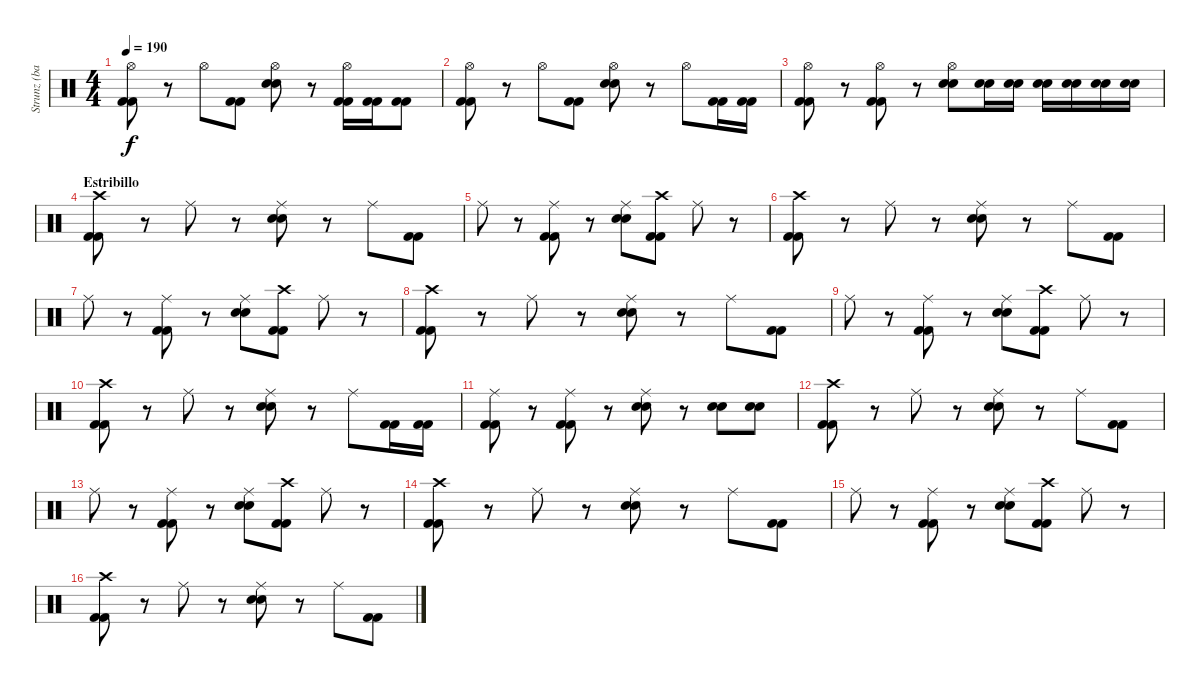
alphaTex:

\track ("Strunz (bateria)" "Strunz (ba") {instrument percussion}
\staff {score}
\articulation defaults
\ts (4 4)
\tempo 190
\clef neutral
\ks c
("Hi-Hat (open)" "Kick (hit) 2" "Kick (hit) 2").8{dy f} r.8 "Hi-Hat (open)".8 ("Kick (hit) 2" "Kick (hit) 2").8 ("Hi-Hat (open)" "Snare (hit) 2" "Snare (hit) 2").8 r.8 ("Hi-Hat (open)" "Kick (hit) 2" "Kick (hit) 2").16 ("Kick (hit) 2" "Kick (hit) 2").16 ("Kick (hit) 2" "Kick (hit) 2").8 |
("Hi-Hat (open)" "Kick (hit) 2" "Kick (hit) 2").8 r.8 "Hi-Hat (open)".8 ("Kick (hit) 2" "Kick (hit) 2").8 ("Hi-Hat (open)" "Snare (hit) 2" "Snare (hit) 2").8 r.8 "Hi-Hat (open)".8 ("Kick (hit) 2" "Kick (hit) 2").16 ("Kick (hit) 2" "Kick (hit) 2").16 |
("Hi-Hat (open)" "Kick (hit) 2" "Kick (hit) 2").8 r.8 ("Hi-Hat (open)" "Kick (hit) 2" "Kick (hit) 2").8 r.8 ("Hi-Hat (open)" "Snare (hit) 2" "Snare (hit) 2").8 ("Snare (hit) 2" "Snare (hit) 2").16 ("Snare (hit) 2" "Snare (hit) 2").16 ("Snare (hit) 2" "Snare (hit) 2").16 ("Snare (hit) 2" "Snare (hit) 2").16 ("Snare (hit) 2" "Snare (hit) 2").16 ("Snare (hit) 2" "Snare (hit) 2").16 |
\section ("" "Estribillo")
("Crash high (hit)" "Kick (hit) 2" "Kick (hit) 2").8 r.8 "Ride (middle)".8 r.8 ("Ride (middle)" "Snare (hit) 2" "Snare (hit) 2").8 r.8 "Ride (middle)".8 ("Kick (hit) 2" "Kick (hit) 2").8 |
"Ride (middle)".8 r.8 ("Ride (middle)" "Kick (hit) 2" "Kick (hit) 2").8 r.8 ("Ride (middle)" "Snare (hit) 2" "Snare (hit) 2").8 ("Crash high (hit)" "Kick (hit) 2" "Kick (hit) 2").8 "Ride (middle)".8 r.8 |
("Crash high (hit)" "Kick (hit) 2" "Kick (hit) 2").8 r.8 "Ride (middle)".8 r.8 ("Ride (middle)" "Snare (hit) 2" "Snare (hit) 2").8 r.8 "Ride (middle)".8 ("Kick (hit) 2" "Kick (hit) 2").8 |
"Ride (middle)".8 r.8 ("Ride (middle)" "Kick (hit) 2" "Kick (hit) 2").8 r.8 ("Ride (middle)" "Snare (hit) 2" "Snare (hit) 2").8 ("Crash high (hit)" "Kick (hit) 2" "Kick (hit) 2").8 "Ride (middle)".8 r.8 |
("Crash high (hit)" "Kick (hit) 2" "Kick (hit) 2").8 r.8 "Ride (middle)".8 r.8 ("Ride (middle)" "Snare (hit) 2" "Snare (hit) 2").8 r.8 "Ride (middle)".8 ("Kick (hit) 2" "Kick (hit) 2").8 |
"Ride (middle)".8 r.8 ("Ride (middle)" "Kick (hit) 2" "Kick (hit) 2").8 r.8 ("Ride (middle)" "Snare (hit) 2" "Snare (hit) 2").8 ("Crash high (hit)" "Kick (hit) 2" "Kick (hit) 2").8 "Ride (middle)".8 r.8 |
("Crash high (hit)" "Kick (hit) 2" "Kick (hit) 2").8 r.8 "Ride (middle)".8 r.8 ("Ride (middle)" "Snare (hit) 2" "Snare (hit) 2").8 r.8 "Ride (middle)".8 ("Kick (hit) 2" "Kick (hit) 2").16 ("Kick (hit) 2" "Kick (hit) 2").16 |
("Ride (middle)" "Kick (hit) 2" "Kick (hit) 2").8 r.8 ("Ride (middle)" "Kick (hit) 2" "Kick (hit) 2").8 r.8 ("Ride (middle)" "Snare (hit) 2" "Snare (hit) 2").8 r.8 ("Snare (hit) 2" "Snare (hit) 2").8 ("Snare (hit) 2" "Snare (hit) 2").8 |
("Crash high (hit)" "Kick (hit) 2" "Kick (hit) 2").8 r.8 "Ride (middle)".8 r.8 ("Ride (middle)" "Snare (hit) 2" "Snare (hit) 2").8 r.8 "Ride (middle)".8 ("Kick (hit) 2" "Kick (hit) 2").8 |
"Ride (middle)".8 r.8 ("Ride (middle)" "Kick (hit) 2" "Kick (hit) 2").8 r.8 ("Ride (middle)" "Snare (hit) 2" "Snare (hit) 2").8 ("Crash high (hit)" "Kick (hit) 2" "Kick (hit) 2").8 "Ride (middle)".8 r.8 |
("Crash high (hit)" "Kick (hit) 2" "Kick (hit) 2").8 r.8 "Ride (middle)".8 r.8 ("Ride (middle)" "Snare (hit) 2" "Snare (hit) 2").8 r.8 "Ride (middle)".8 ("Kick (hit) 2" "Kick (hit) 2").8 |
"Ride (middle)".8 r.8 ("Ride (middle)" "Kick (hit) 2" "Kick (hit) 2").8 r.8 ("Ride (middle)" "Snare (hit) 2" "Snare (hit) 2").8 ("Crash high (hit)" "Kick (hit) 2" "Kick (hit) 2").8 "Ride (middle)".8 r.8 |
("Crash high (hit)" "Kick (hit) 2" "Kick (hit) 2").8 r.8 "Ride (middle)".8 r.8 ("Ride (middle)" "Snare (hit) 2" "Snare (hit) 2").8 r.8 "Ride (middle)".8 ("Kick (hit) 2" "Kick (hit) 2").8
